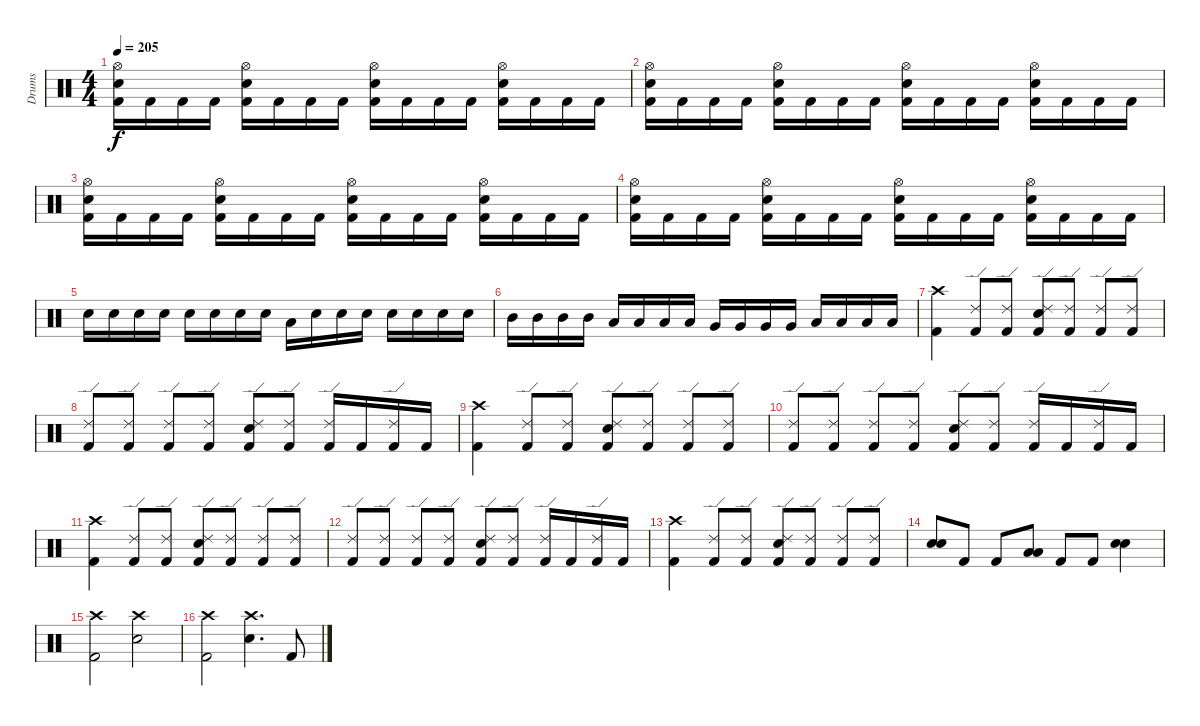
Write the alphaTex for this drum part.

\track ("Drums" "Drums") {instrument percussion}
\staff {score}
\articulation defaults
\ts (4 4)
\tempo 205
\clef neutral
\ks c
("Hi-Hat (open)" "Snare (hit) 2" "Kick (hit) 2").16{dy f} "Kick (hit) 2".16 "Kick (hit) 2".16 "Kick (hit) 2".16 ("Hi-Hat (open)" "Snare (hit) 2" "Kick (hit) 2").16 "Kick (hit) 2".16 "Kick (hit) 2".16 "Kick (hit) 2".16 ("Hi-Hat (open)" "Snare (hit) 2" "Kick (hit) 2").16 "Kick (hit) 2".16 "Kick (hit) 2".16 "Kick (hit) 2".16 ("Hi-Hat (open)" "Snare (hit) 2" "Kick (hit) 2").16 "Kick (hit) 2".16 "Kick (hit) 2".16 "Kick (hit) 2".16 |
("Hi-Hat (open)" "Snare (hit) 2" "Kick (hit) 2").16 "Kick (hit) 2".16 "Kick (hit) 2".16 "Kick (hit) 2".16 ("Hi-Hat (open)" "Snare (hit) 2" "Kick (hit) 2").16 "Kick (hit) 2".16 "Kick (hit) 2".16 "Kick (hit) 2".16 ("Hi-Hat (open)" "Snare (hit) 2" "Kick (hit) 2").16 "Kick (hit) 2".16 "Kick (hit) 2".16 "Kick (hit) 2".16 ("Hi-Hat (open)" "Snare (hit) 2" "Kick (hit) 2").16 "Kick (hit) 2".16 "Kick (hit) 2".16 "Kick (hit) 2".16 |
("Hi-Hat (open)" "Snare (hit) 2" "Kick (hit) 2").16 "Kick (hit) 2".16 "Kick (hit) 2".16 "Kick (hit) 2".16 ("Hi-Hat (open)" "Snare (hit) 2" "Kick (hit) 2").16 "Kick (hit) 2".16 "Kick (hit) 2".16 "Kick (hit) 2".16 ("Hi-Hat (open)" "Snare (hit) 2" "Kick (hit) 2").16 "Kick (hit) 2".16 "Kick (hit) 2".16 "Kick (hit) 2".16 ("Hi-Hat (open)" "Snare (hit) 2" "Kick (hit) 2").16 "Kick (hit) 2".16 "Kick (hit) 2".16 "Kick (hit) 2".16 |
("Hi-Hat (open)" "Snare (hit) 2" "Kick (hit) 2").16 "Kick (hit) 2".16 "Kick (hit) 2".16 "Kick (hit) 2".16 ("Hi-Hat (open)" "Snare (hit) 2" "Kick (hit) 2").16 "Kick (hit) 2".16 "Kick (hit) 2".16 "Kick (hit) 2".16 ("Hi-Hat (open)" "Snare (hit) 2" "Kick (hit) 2").16 "Kick (hit) 2".16 "Kick (hit) 2".16 "Kick (hit) 2".16 ("Hi-Hat (open)" "Snare (hit) 2" "Kick (hit) 2").16 "Kick (hit) 2".16 "Kick (hit) 2".16 "Kick (hit) 2".16 |
"Snare (hit) 2".16 "Snare (hit) 2".16 "Snare (hit) 2".16 "Snare (hit) 2".16 "Snare (hit) 2".16 "Snare (hit) 2".16 "Snare (hit) 2".16 "Snare (hit) 2".16 "Low Tom (hit)".16 "Snare (hit) 2".16 "Snare (hit) 2".16 "Snare (hit) 2".16 "Snare (hit) 2".16 "Snare (hit) 2".16 "Snare (hit) 2".16 "Snare (hit) 2".16 |
"Mid Tom (hit)".16 "Mid Tom (hit)".16 "Mid Tom (hit)".16 "Mid Tom (hit)".16 "Low Tom (hit)".16 "Low Tom (hit)".16 "Low Tom (hit)".16 "Low Tom (hit)".16 "Very Low Tom (hit)".16 "Very Low Tom (hit)".16 "Very Low Tom (hit)".16 "Very Low Tom (hit)".16 "Low Floor Tom (hit)".16 "Low Floor Tom (hit)".16 "Low Floor Tom (hit)".16 "Low Floor Tom (hit)".16 |
("Crash high (hit)" "Kick (hit) 2").4 ("Ride (edge) 2" "Kick (hit) 2").8 ("Ride (edge) 2" "Kick (hit) 2").8 ("Ride (edge) 2" "Snare (hit) 2" "Kick (hit) 2").8 ("Ride (edge) 2" "Kick (hit) 2").8 ("Ride (edge) 2" "Kick (hit) 2").8 ("Ride (edge) 2" "Kick (hit) 2").8 |
("Ride (edge) 2" "Kick (hit) 2").8 ("Ride (edge) 2" "Kick (hit) 2").8 ("Ride (edge) 2" "Kick (hit) 2").8 ("Ride (edge) 2" "Kick (hit) 2").8 ("Ride (edge) 2" "Snare (hit) 2" "Kick (hit) 2").8 ("Ride (edge) 2" "Kick (hit) 2").8 ("Ride (edge) 2" "Kick (hit) 2").16 "Kick (hit) 2".16 ("Ride (edge) 2" "Kick (hit) 2").16 "Kick (hit) 2".16 |
("Crash high (hit)" "Kick (hit) 2").4 ("Ride (edge) 2" "Kick (hit) 2").8 ("Ride (edge) 2" "Kick (hit) 2").8 ("Ride (edge) 2" "Snare (hit) 2" "Kick (hit) 2").8 ("Ride (edge) 2" "Kick (hit) 2").8 ("Ride (edge) 2" "Kick (hit) 2").8 ("Ride (edge) 2" "Kick (hit) 2").8 |
("Ride (edge) 2" "Kick (hit) 2").8 ("Ride (edge) 2" "Kick (hit) 2").8 ("Ride (edge) 2" "Kick (hit) 2").8 ("Ride (edge) 2" "Kick (hit) 2").8 ("Ride (edge) 2" "Snare (hit) 2" "Kick (hit) 2").8 ("Ride (edge) 2" "Kick (hit) 2").8 ("Ride (edge) 2" "Kick (hit) 2").16 "Kick (hit) 2".16 ("Ride (edge) 2" "Kick (hit) 2").16 "Kick (hit) 2".16 |
("Crash high (hit)" "Kick (hit) 2").4 ("Ride (edge) 2" "Kick (hit) 2").8 ("Ride (edge) 2" "Kick (hit) 2").8 ("Ride (edge) 2" "Snare (hit) 2" "Kick (hit) 2").8 ("Ride (edge) 2" "Kick (hit) 2").8 ("Ride (edge) 2" "Kick (hit) 2").8 ("Ride (edge) 2" "Kick (hit) 2").8 |
("Ride (edge) 2" "Kick (hit) 2").8 ("Ride (edge) 2" "Kick (hit) 2").8 ("Ride (edge) 2" "Kick (hit) 2").8 ("Ride (edge) 2" "Kick (hit) 2").8 ("Ride (edge) 2" "Snare (hit) 2" "Kick (hit) 2").8 ("Ride (edge) 2" "Kick (hit) 2").8 ("Ride (edge) 2" "Kick (hit) 2").16 "Kick (hit) 2".16 ("Ride (edge) 2" "Kick (hit) 2").16 "Kick (hit) 2".16 |
("Crash high (hit)" "Kick (hit) 2").4 ("Ride (edge) 2" "Kick (hit) 2").8 ("Ride (edge) 2" "Kick (hit) 2").8 ("Ride (edge) 2" "Snare (hit) 2" "Kick (hit) 2").8 ("Ride (edge) 2" "Kick (hit) 2").8 ("Ride (edge) 2" "Kick (hit) 2").8 ("Ride (edge) 2" "Kick (hit) 2").8 |
("Snare (hit) 2" "Snare (hit) 2").8 "Kick (hit) 2".8 "Kick (hit) 2".8 ("Low Tom (hit)" "Low Floor Tom (hit)").8 "Kick (hit) 2".8 "Kick (hit) 2".8 ("Snare (hit) 2" "Snare (hit) 2").4 |
("Crash high (hit)" "Kick (hit) 2").2 ("Crash high (hit)" "Snare (hit) 2").2 |
("Crash high (hit)" "Kick (hit) 2").2 ("Crash high (hit)" "Snare (hit) 2").4{d} "Kick (hit) 2".8
